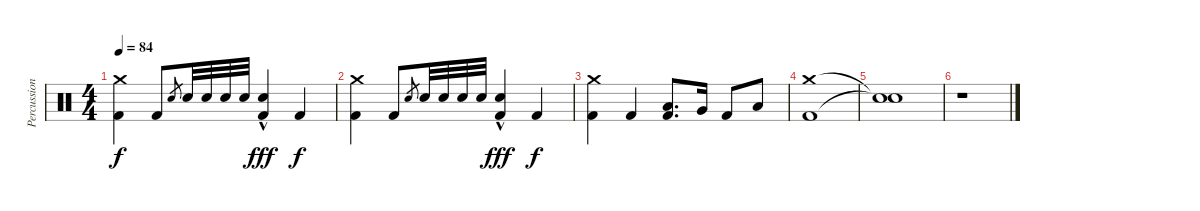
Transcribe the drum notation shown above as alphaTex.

\track ("Percussion" "Percussion") {instrument percussion}
\staff {score}
\articulation defaults
\ts (4 4)
\tempo 84
\clef neutral
\ks c
("Crash medium (hit)" "Kick (hit) 2").4{dy f} "Kick (hit) 2".8 "Electric Snare (hit)".8{gr} "Electric Snare (hit)".32 "Electric Snare (hit)".32 "Electric Snare (hit)".32 "Electric Snare (hit)".32 ("Electric Snare (hit)"{hac} "Kick (hit) 2").4{dy fff} "Kick (hit) 2".4{dy f} |
("Crash medium (hit)" "Kick (hit) 2").4 "Kick (hit) 2".8 "Electric Snare (hit)".8{gr} "Electric Snare (hit)".32 "Electric Snare (hit)".32 "Electric Snare (hit)".32 "Electric Snare (hit)".32 ("Electric Snare (hit)"{hac} "Kick (hit) 2").4{dy fff} "Kick (hit) 2".4{dy f} |
("Crash medium (hit)" "Kick (hit) 2").4 "Kick (hit) 2".4 ("Low Tom (hit)" "Kick (hit) 2").8{d} "Very Low Tom (hit)".16 "Kick (hit) 2".8 "Low Floor Tom (hit)".8 |
("Crash medium (hit)" "Kick (hit) 2").1 |
("Snare (hit)"{t} "Snare (hit)"{t}).1 |
r.1
